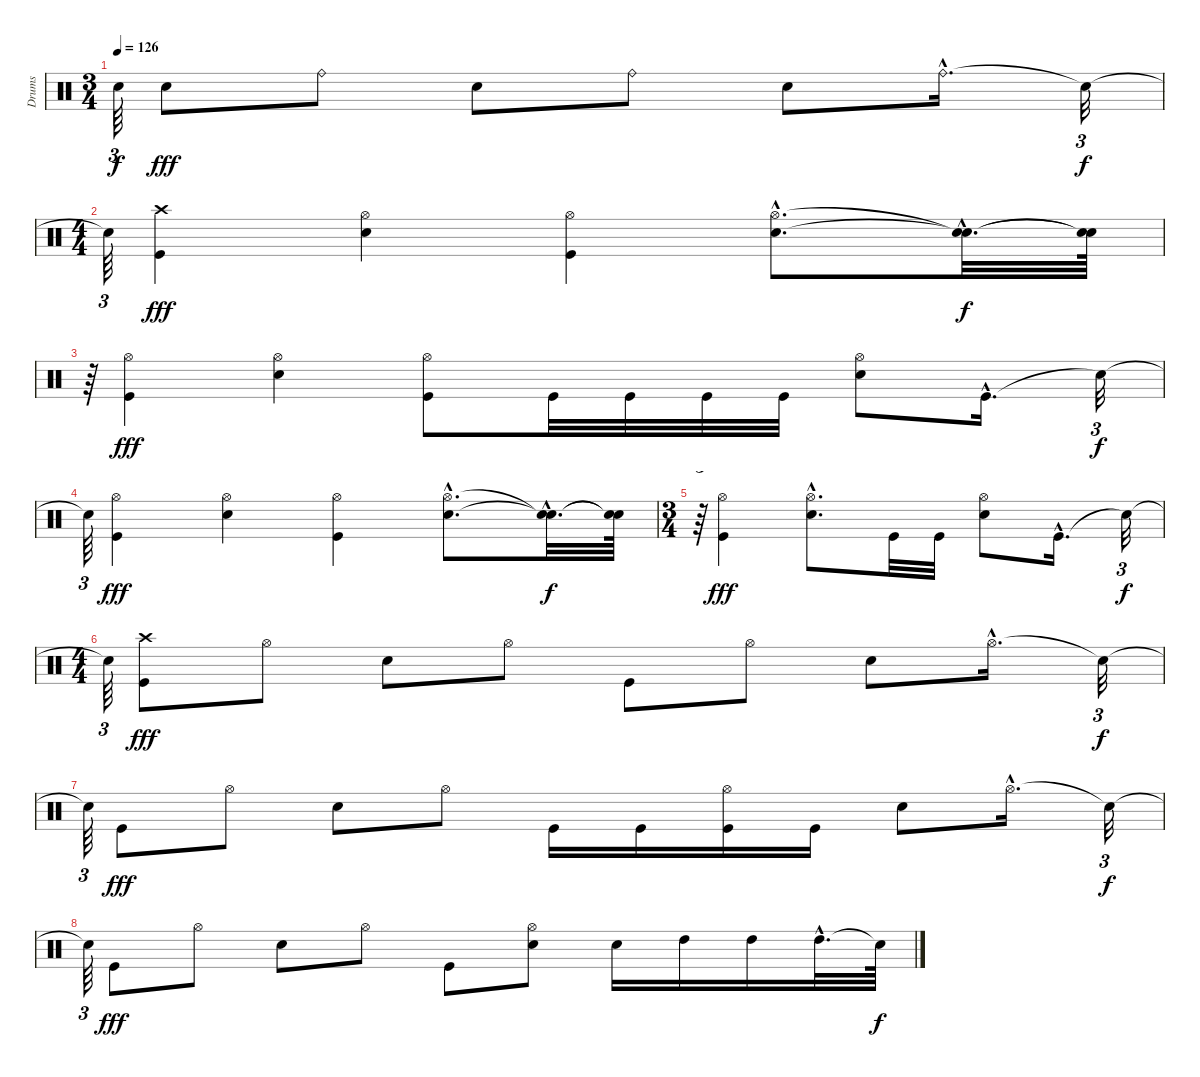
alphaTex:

\track ("Drums" "Drums") {instrument percussion}
\staff {score}
\articulation defaults
\ts (3 4)
\tempo 126
\clef neutral
\ks c "Snare (hit)"{t}.64{tu (3 2) dy f} "Snare (hit) 2".8{dy fff} "Ride (bell)".8 "Snare (hit) 2".8 "Ride (bell)".8 "Snare (hit) 2".8 "Ride (bell)"{hac}.16{d} "Snare (hit)"{t}.32{tu (3 2) dy f}
|
\ts (4 4)
"Snare (hit)"{t}.64{tu (3 2)} ("Kick (hit)" "Crash high (hit)").4{dy fff} ("Snare (hit) 2" "Hi-Hat (open)").4 ("Kick (hit)" "Hi-Hat (open)").4 ("Snare (hit) 2"{hac} "Hi-Hat (open)"{hac}).8{d} ("Snare (hit)"{hac t} "Snare (hit)"{hac t}).32{d dy f} ("Snare (hit)"{t} "Snare (hit)"{t}).64 |
r.64{tu (3 2)} ("Kick (hit)" "Hi-Hat (open)").4{dy fff} ("Snare (hit) 2" "Hi-Hat (open)").4 ("Kick (hit)" "Hi-Hat (open)").8 "Kick (hit)".32 "Kick (hit)".32 "Kick (hit)".32 "Kick (hit)".32 ("Snare (hit) 2" "Hi-Hat (open)").8 "Kick (hit)"{hac}.16{d} "Snare (hit)"{t}.32{tu (3 2) dy f} |
"Snare (hit)"{t}.64{tu (3 2)} ("Kick (hit)" "Hi-Hat (open)").4{dy fff} ("Snare (hit) 2" "Hi-Hat (open)").4 ("Kick (hit)" "Hi-Hat (open)").4 ("Snare (hit) 2"{hac} "Hi-Hat (open)"{hac}).8{d} ("Snare (hit)"{hac t} "Snare (hit)"{hac t}).32{d dy f} ("Snare (hit)"{t} "Snare (hit)"{t}).64 |
\ts (3 4)
r.64{tu (3 2)} ("Kick (hit)" "Hi-Hat (open)").4{dy fff} ("Snare (hit) 2"{hac} "Hi-Hat (open)").8{d} "Kick (hit)".32 "Kick (hit)".32 ("Snare (hit) 2" "Hi-Hat (open)").8 "Kick (hit)"{hac}.16{d} "Snare (hit)"{t}.32{tu (3 2) dy f} |
\ts (4 4)
"Snare (hit)"{t}.64{tu (3 2)} ("Kick (hit)" "Crash high (hit)").8{dy fff} "Hi-Hat (open)".8 "Snare (hit) 2".8 "Hi-Hat (open)".8 "Kick (hit)".8 "Hi-Hat (open)".8 "Snare (hit) 2".8 "Hi-Hat (open)"{hac}.16{d} "Snare (hit)"{t}.32{tu (3 2) dy f} |
"Snare (hit)"{t}.64{tu (3 2)} "Kick (hit)".8{dy fff} "Hi-Hat (open)".8 "Snare (hit) 2".8 "Hi-Hat (open)".8 "Kick (hit)".16 "Kick (hit)".16 ("Kick (hit)" "Hi-Hat (open)").16 "Kick (hit)".16 "Snare (hit) 2".8 "Hi-Hat (open)"{hac}.16{d} "Snare (hit)"{t}.32{tu (3 2) dy f} |
"Snare (hit)"{t}.64{tu (3 2)} "Kick (hit)".8{dy fff} "Hi-Hat (open)".8 "Snare (hit) 2".8 "Hi-Hat (open)".8 "Kick (hit)".8 ("Snare (hit) 2" "Hi-Hat (open)").8 "Snare (hit) 2".16 "High Tom (hit)".16 "High Tom (hit)".16 "High Tom (hit)"{hac}.32{d} "Snare (hit)"{t}.64{dy f}
